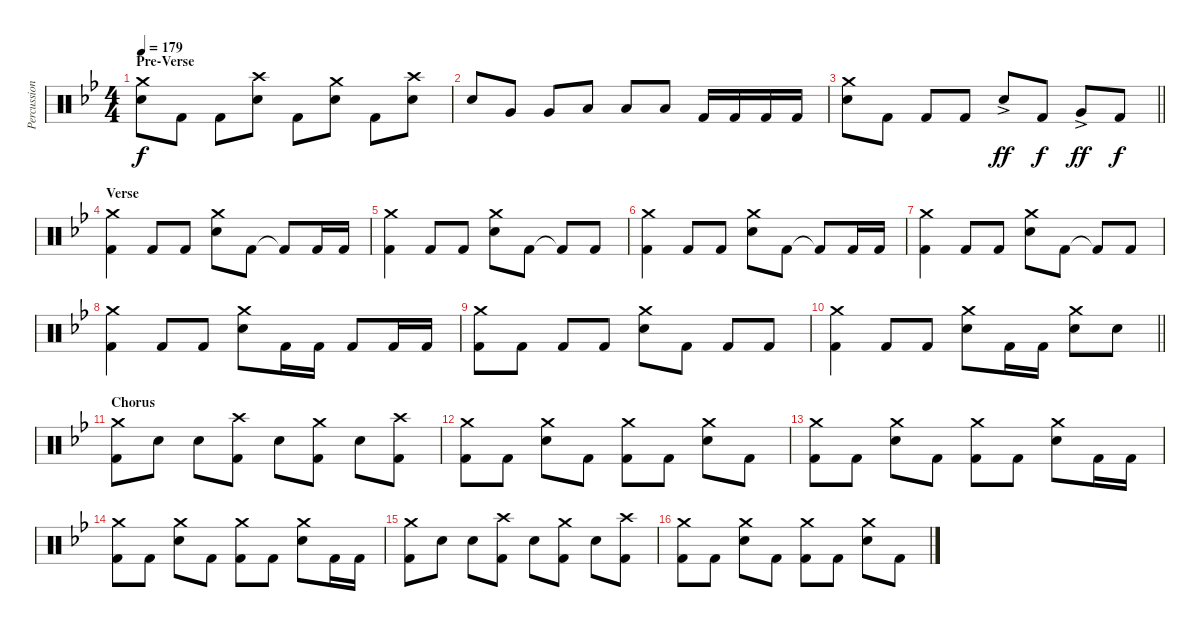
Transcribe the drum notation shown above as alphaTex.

\track ("Percussion" "Percussion") {instrument percussion}
\staff {score}
\articulation defaults
\ts (4 4)
\section ("" "Pre-Verse")
\tempo 179
\clef neutral
\ks bb
("Crash medium (hit)" "Electric Snare (hit)").8{dy f} "Kick (hit) 2".8 "Kick (hit) 2".8 ("Crash high (hit)" "Electric Snare (hit)").8 "Kick (hit) 2".8 ("Crash medium (hit)" "Electric Snare (hit)").8 "Kick (hit) 2".8 ("Crash high (hit)" "Electric Snare (hit)").8 |
"Electric Snare (hit)".8 "Very Low Tom (hit)".8 "Very Low Tom (hit)".8 "Low Floor Tom (hit)".8 "Low Floor Tom (hit)".8 "Low Floor Tom (hit)".8 "Kick (hit) 2".16 "Kick (hit) 2".16 "Kick (hit) 2".16 "Kick (hit) 2".16 |
\barLineRight lightlight
("Crash medium (hit)" "Electric Snare (hit)").8 "Kick (hit) 2".8 "Kick (hit) 2".8 "Kick (hit) 2".8 "Electric Snare (hit)"{ac}.8{dy ff} "Kick (hit) 2".8{dy f} "Very Low Tom (hit)"{ac}.8{dy ff} "Kick (hit) 2".8{dy f} |
\section ("" "Verse")
("Crash medium (hit)" "Kick (hit) 2").4 "Kick (hit) 2".8 "Kick (hit) 2".8 ("Crash medium (hit)" "Electric Snare (hit)").8 "Kick (hit) 2".8 "Kick (hit) 2"{t}.8 "Kick (hit) 2".16 "Kick (hit) 2".16 |
("Crash medium (hit)" "Kick (hit) 2").4 "Kick (hit) 2".8 "Kick (hit) 2".8 ("Crash medium (hit)" "Electric Snare (hit)").8 "Kick (hit) 2".8 "Kick (hit) 2"{t}.8 "Kick (hit) 2".8 |
("Crash medium (hit)" "Kick (hit) 2").4 "Kick (hit) 2".8 "Kick (hit) 2".8 ("Crash medium (hit)" "Electric Snare (hit)").8 "Kick (hit) 2".8 "Kick (hit) 2"{t}.8 "Kick (hit) 2".16 "Kick (hit) 2".16 |
("Crash medium (hit)" "Kick (hit) 2").4 "Kick (hit) 2".8 "Kick (hit) 2".8 ("Crash medium (hit)" "Electric Snare (hit)").8 "Kick (hit) 2".8 "Kick (hit) 2"{t}.8 "Kick (hit) 2".8 |
("Crash medium (hit)" "Kick (hit) 2").4 "Kick (hit) 2".8 "Kick (hit) 2".8 ("Crash medium (hit)" "Electric Snare (hit)").8 "Kick (hit) 2".16 "Kick (hit) 2".16 "Kick (hit) 2".8 "Kick (hit) 2".16 "Kick (hit) 2".16 |
("Crash medium (hit)" "Kick (hit) 2").8 "Kick (hit) 2".8 "Kick (hit) 2".8 "Kick (hit) 2".8 ("Crash medium (hit)" "Electric Snare (hit)").8 "Kick (hit) 2".8 "Kick (hit) 2".8 "Kick (hit) 2".8 |
\barLineRight lightlight
("Crash medium (hit)" "Kick (hit) 2").4 "Kick (hit) 2".8 "Kick (hit) 2".8 ("Crash medium (hit)" "Electric Snare (hit)").8 "Kick (hit) 2".16 "Kick (hit) 2".16 ("Crash medium (hit)" "Electric Snare (hit)").8 "Electric Snare (hit)".8 |
\section ("" "Chorus")
("Crash medium (hit)" "Kick (hit) 2").8 "Electric Snare (hit)".8 "Electric Snare (hit)".8 ("Crash high (hit)" "Kick (hit) 2").8 "Electric Snare (hit)".8 ("Crash medium (hit)" "Kick (hit) 2").8 "Electric Snare (hit)".8 ("Crash high (hit)" "Kick (hit) 2").8 |
("Crash medium (hit)" "Kick (hit) 2").8 "Kick (hit) 2".8 ("Crash medium (hit)" "Electric Snare (hit)").8 "Kick (hit) 2".8 ("Crash medium (hit)" "Kick (hit) 2").8 "Kick (hit) 2".8 ("Crash medium (hit)" "Electric Snare (hit)").8 "Kick (hit) 2".8 |
("Crash medium (hit)" "Kick (hit) 2").8 "Kick (hit) 2".8 ("Crash medium (hit)" "Electric Snare (hit)").8 "Kick (hit) 2".8 ("Crash medium (hit)" "Kick (hit) 2").8 "Kick (hit) 2".8 ("Crash medium (hit)" "Electric Snare (hit)").8 "Kick (hit) 2".16 "Kick (hit) 2".16 |
("Crash medium (hit)" "Kick (hit) 2").8 "Kick (hit) 2".8 ("Crash medium (hit)" "Electric Snare (hit)").8 "Kick (hit) 2".8 ("Crash medium (hit)" "Kick (hit) 2").8 "Kick (hit) 2".8 ("Crash medium (hit)" "Electric Snare (hit)").8 "Kick (hit) 2".16 "Kick (hit) 2".16 |
("Crash medium (hit)" "Kick (hit) 2").8 "Electric Snare (hit)".8 "Electric Snare (hit)".8 ("Crash high (hit)" "Kick (hit) 2").8 "Electric Snare (hit)".8 ("Crash medium (hit)" "Kick (hit) 2").8 "Electric Snare (hit)".8 ("Crash high (hit)" "Kick (hit) 2").8 |
("Crash medium (hit)" "Kick (hit) 2").8 "Kick (hit) 2".8 ("Crash medium (hit)" "Electric Snare (hit)").8 "Kick (hit) 2".8 ("Crash medium (hit)" "Kick (hit) 2").8 "Kick (hit) 2".8 ("Crash medium (hit)" "Electric Snare (hit)").8 "Kick (hit) 2".8
